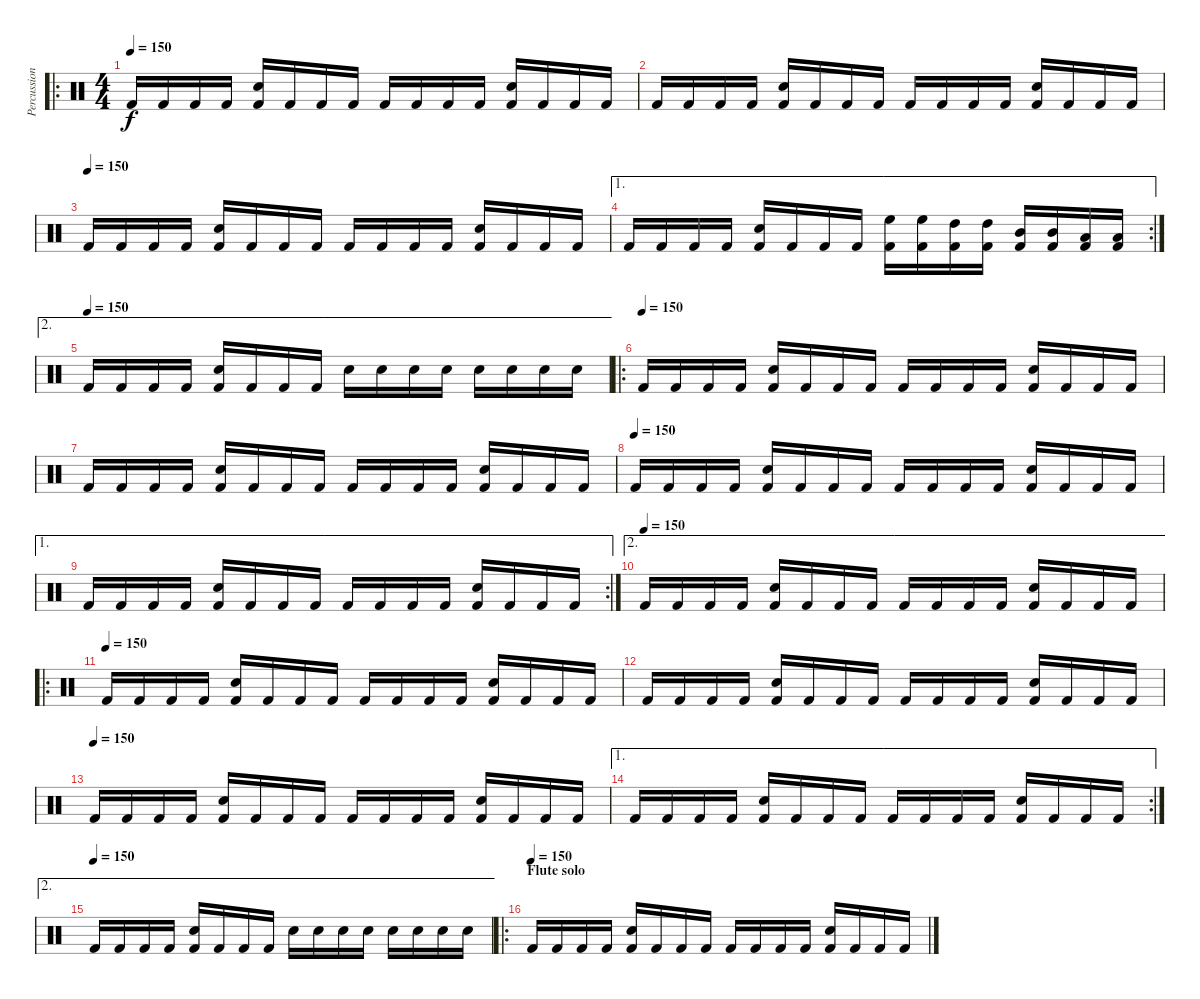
\track ("Percussion" "Percussion") {instrument percussion}
\staff {score}
\articulation defaults
\ro
\ts (4 4)
\tempo 150
\clef neutral
\ks c "Kick (hit) 2".16{dy f} "Kick (hit) 2".16 "Kick (hit) 2".16 "Kick (hit) 2".16
("Snare (hit) 2" "Kick (hit) 2").16 "Kick (hit) 2".16 "Kick (hit) 2".16 "Kick (hit) 2".16 "Kick (hit) 2".16 "Kick (hit) 2".16 "Kick (hit) 2".16 "Kick (hit) 2".16 ("Snare (hit) 2" "Kick (hit) 2").16 "Kick (hit) 2".16 "Kick (hit) 2".16 "Kick (hit) 2".16 |
"Kick (hit) 2".16 "Kick (hit) 2".16 "Kick (hit) 2".16 "Kick (hit) 2".16 ("Snare (hit) 2" "Kick (hit) 2").16 "Kick (hit) 2".16 "Kick (hit) 2".16 "Kick (hit) 2".16 "Kick (hit) 2".16 "Kick (hit) 2".16 "Kick (hit) 2".16 "Kick (hit) 2".16 ("Snare (hit) 2" "Kick (hit) 2").16 "Kick (hit) 2".16 "Kick (hit) 2".16 "Kick (hit) 2".16 |
\tempo (150)
"Kick (hit) 2".16 "Kick (hit) 2".16 "Kick (hit) 2".16 "Kick (hit) 2".16 ("Snare (hit) 2" "Kick (hit) 2").16 "Kick (hit) 2".16 "Kick (hit) 2".16 "Kick (hit) 2".16 "Kick (hit) 2".16 "Kick (hit) 2".16 "Kick (hit) 2".16 "Kick (hit) 2".16 ("Snare (hit) 2" "Kick (hit) 2").16 "Kick (hit) 2".16 "Kick (hit) 2".16 "Kick (hit) 2".16 |
\ae 1
\rc 2 "Kick (hit) 2".16 "Kick (hit) 2".16 "Kick (hit) 2".16 "Kick (hit) 2".16
("Snare (hit) 2" "Kick (hit) 2").16 "Kick (hit) 2".16 "Kick (hit) 2".16 "Kick (hit) 2".16 ("High Floor Tom (hit)" "Kick (hit) 2").16 ("High Floor Tom (hit)" "Kick (hit) 2").16 ("High Tom (hit)" "Kick (hit) 2").16 ("High Tom (hit)" "Kick (hit) 2").16 ("Mid Tom (hit)" "Kick (hit) 2").16 ("Mid Tom (hit)" "Kick (hit) 2").16 ("Low Tom (hit)" "Kick (hit) 2").16 ("Low Tom (hit)" "Kick (hit) 2").16 |
\ae 2
\tempo (150)
"Kick (hit) 2".16 "Kick (hit) 2".16 "Kick (hit) 2".16 "Kick (hit) 2".16 ("Snare (hit) 2" "Kick (hit) 2").16 "Kick (hit) 2".16 "Kick (hit) 2".16 "Kick (hit) 2".16 "Snare (hit) 2".16 "Snare (hit) 2".16 "Snare (hit) 2".16 "Snare (hit) 2".16 "Snare (hit) 2".16 "Snare (hit) 2".16 "Snare (hit) 2".16 "Snare (hit) 2".16 |
\ro
\tempo (150)
"Kick (hit) 2".16 "Kick (hit) 2".16 "Kick (hit) 2".16 "Kick (hit) 2".16 ("Snare (hit) 2" "Kick (hit) 2").16 "Kick (hit) 2".16 "Kick (hit) 2".16 "Kick (hit) 2".16 "Kick (hit) 2".16 "Kick (hit) 2".16 "Kick (hit) 2".16 "Kick (hit) 2".16 ("Snare (hit) 2" "Kick (hit) 2").16 "Kick (hit) 2".16 "Kick (hit) 2".16 "Kick (hit) 2".16 |
"Kick (hit) 2".16 "Kick (hit) 2".16 "Kick (hit) 2".16 "Kick (hit) 2".16 ("Snare (hit) 2" "Kick (hit) 2").16 "Kick (hit) 2".16 "Kick (hit) 2".16 "Kick (hit) 2".16 "Kick (hit) 2".16 "Kick (hit) 2".16 "Kick (hit) 2".16 "Kick (hit) 2".16 ("Snare (hit) 2" "Kick (hit) 2").16 "Kick (hit) 2".16 "Kick (hit) 2".16 "Kick (hit) 2".16 |
\tempo (150)
"Kick (hit) 2".16 "Kick (hit) 2".16 "Kick (hit) 2".16 "Kick (hit) 2".16 ("Snare (hit) 2" "Kick (hit) 2").16 "Kick (hit) 2".16 "Kick (hit) 2".16 "Kick (hit) 2".16 "Kick (hit) 2".16 "Kick (hit) 2".16 "Kick (hit) 2".16 "Kick (hit) 2".16 ("Snare (hit) 2" "Kick (hit) 2").16 "Kick (hit) 2".16 "Kick (hit) 2".16 "Kick (hit) 2".16 |
\ae 1
\rc 2 "Kick (hit) 2".16 "Kick (hit) 2".16 "Kick (hit) 2".16 "Kick (hit) 2".16
("Snare (hit) 2" "Kick (hit) 2").16 "Kick (hit) 2".16 "Kick (hit) 2".16 "Kick (hit) 2".16 "Kick (hit) 2".16 "Kick (hit) 2".16 "Kick (hit) 2".16 "Kick (hit) 2".16 ("Snare (hit) 2" "Kick (hit) 2").16 "Kick (hit) 2".16 "Kick (hit) 2".16 "Kick (hit) 2".16 |
\ae 2
\tempo (150)
"Kick (hit) 2".16 "Kick (hit) 2".16 "Kick (hit) 2".16 "Kick (hit) 2".16 ("Snare (hit) 2" "Kick (hit) 2").16 "Kick (hit) 2".16 "Kick (hit) 2".16 "Kick (hit) 2".16 "Kick (hit) 2".16 "Kick (hit) 2".16 "Kick (hit) 2".16 "Kick (hit) 2".16 ("Snare (hit) 2" "Kick (hit) 2").16 "Kick (hit) 2".16 "Kick (hit) 2".16 "Kick (hit) 2".16 |
\ro
\tempo (150)
"Kick (hit) 2".16 "Kick (hit) 2".16 "Kick (hit) 2".16 "Kick (hit) 2".16 ("Snare (hit) 2" "Kick (hit) 2").16 "Kick (hit) 2".16 "Kick (hit) 2".16 "Kick (hit) 2".16 "Kick (hit) 2".16 "Kick (hit) 2".16 "Kick (hit) 2".16 "Kick (hit) 2".16 ("Snare (hit) 2" "Kick (hit) 2").16 "Kick (hit) 2".16 "Kick (hit) 2".16 "Kick (hit) 2".16 |
"Kick (hit) 2".16 "Kick (hit) 2".16 "Kick (hit) 2".16 "Kick (hit) 2".16 ("Snare (hit) 2" "Kick (hit) 2").16 "Kick (hit) 2".16 "Kick (hit) 2".16 "Kick (hit) 2".16 "Kick (hit) 2".16 "Kick (hit) 2".16 "Kick (hit) 2".16 "Kick (hit) 2".16 ("Snare (hit) 2" "Kick (hit) 2").16 "Kick (hit) 2".16 "Kick (hit) 2".16 "Kick (hit) 2".16 |
\tempo (150)
"Kick (hit) 2".16 "Kick (hit) 2".16 "Kick (hit) 2".16 "Kick (hit) 2".16 ("Snare (hit) 2" "Kick (hit) 2").16 "Kick (hit) 2".16 "Kick (hit) 2".16 "Kick (hit) 2".16 "Kick (hit) 2".16 "Kick (hit) 2".16 "Kick (hit) 2".16 "Kick (hit) 2".16 ("Snare (hit) 2" "Kick (hit) 2").16 "Kick (hit) 2".16 "Kick (hit) 2".16 "Kick (hit) 2".16 |
\ae 1
\rc 2 "Kick (hit) 2".16 "Kick (hit) 2".16 "Kick (hit) 2".16 "Kick (hit) 2".16
("Snare (hit) 2" "Kick (hit) 2").16 "Kick (hit) 2".16 "Kick (hit) 2".16 "Kick (hit) 2".16 "Kick (hit) 2".16 "Kick (hit) 2".16 "Kick (hit) 2".16 "Kick (hit) 2".16 ("Snare (hit) 2" "Kick (hit) 2").16 "Kick (hit) 2".16 "Kick (hit) 2".16 "Kick (hit) 2".16 |
\ae 2
\tempo (150)
"Kick (hit) 2".16 "Kick (hit) 2".16 "Kick (hit) 2".16 "Kick (hit) 2".16 ("Snare (hit) 2" "Kick (hit) 2").16 "Kick (hit) 2".16 "Kick (hit) 2".16 "Kick (hit) 2".16 "Snare (hit) 2".16 "Snare (hit) 2".16 "Snare (hit) 2".16 "Snare (hit) 2".16 "Snare (hit) 2".16 "Snare (hit) 2".16 "Snare (hit) 2".16 "Snare (hit) 2".16 |
\ro
\section ("" "Flute solo")
\tempo (150)
"Kick (hit) 2".16 "Kick (hit) 2".16 "Kick (hit) 2".16 "Kick (hit) 2".16 ("Snare (hit) 2" "Kick (hit) 2").16 "Kick (hit) 2".16 "Kick (hit) 2".16 "Kick (hit) 2".16 "Kick (hit) 2".16 "Kick (hit) 2".16 "Kick (hit) 2".16 "Kick (hit) 2".16 ("Snare (hit) 2" "Kick (hit) 2").16 "Kick (hit) 2".16 "Kick (hit) 2".16 "Kick (hit) 2".16
